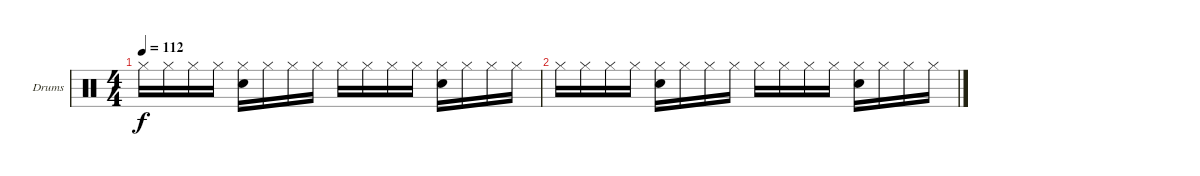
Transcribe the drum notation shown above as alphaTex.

\defaultSystemsLayout 4
\bracketExtendMode groupsimilarinstruments
\firstSystemTrackNameOrientation horizontal
\otherSystemsTrackNameOrientation horizontal
\track ("Drumkit" "Drums") {instrument percussion}
\staff {score}
\articulation defaults
\ts (4 4)
\tempo 112
\clef neutral
\ks c "Hi-Hat (closed)".16{dy f} "Hi-Hat (closed)".16 "Hi-Hat (closed)".16 "Hi-Hat (closed)".16
("Hi-Hat (closed)" "Snare (hit) 2").16 "Hi-Hat (closed)".16 "Hi-Hat (closed)".16 "Hi-Hat (closed)".16 "Hi-Hat (closed)".16 "Hi-Hat (closed)".16 "Hi-Hat (closed)".16 "Hi-Hat (closed)".16 ("Hi-Hat (closed)" "Snare (hit) 2").16 "Hi-Hat (closed)".16 "Hi-Hat (closed)".16 "Hi-Hat (closed)".16 |
"Hi-Hat (closed)".16 "Hi-Hat (closed)".16 "Hi-Hat (closed)".16 "Hi-Hat (closed)".16 ("Hi-Hat (closed)" "Snare (hit) 2").16 "Hi-Hat (closed)".16 "Hi-Hat (closed)".16 "Hi-Hat (closed)".16 "Hi-Hat (closed)".16 "Hi-Hat (closed)".16 "Hi-Hat (closed)".16 "Hi-Hat (closed)".16 ("Hi-Hat (closed)" "Snare (hit) 2").16 "Hi-Hat (closed)".16 "Hi-Hat (closed)".16 "Hi-Hat (closed)".16
